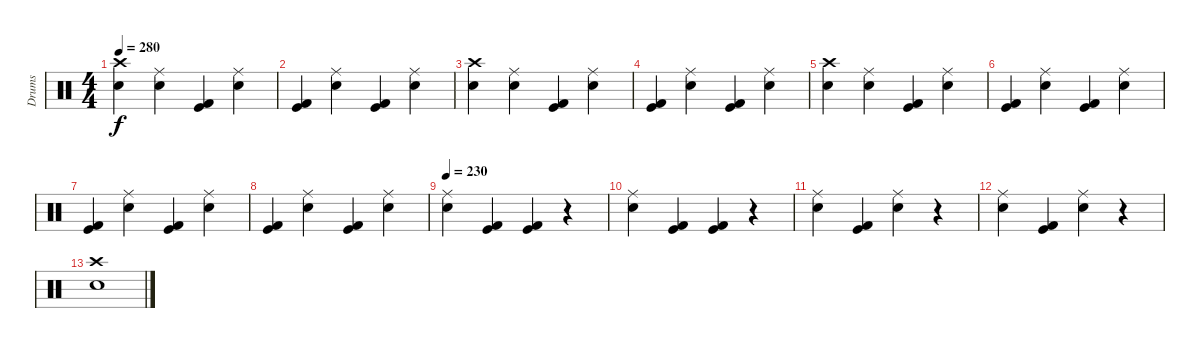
\track ("Drums" "Drums") {instrument percussion}
\staff {score}
\articulation defaults
\ts (4 4)
\tempo 280
\clef neutral
\ks c
("Crash high (hit)" "Electric Snare (hit)").4{dy f} ("Ride (middle)" "Electric Snare (hit)").4 ("Kick (hit)" "Kick (hit) 2").4 ("Ride (middle)" "Electric Snare (hit)").4 |
("Kick (hit)" "Kick (hit) 2").4 ("Ride (middle)" "Electric Snare (hit)").4 ("Kick (hit)" "Kick (hit) 2").4 ("Ride (middle)" "Electric Snare (hit)").4 |
("Crash high (hit)" "Electric Snare (hit)").4 ("Ride (middle)" "Electric Snare (hit)").4 ("Kick (hit)" "Kick (hit) 2").4 ("Ride (middle)" "Electric Snare (hit)").4 |
("Kick (hit)" "Kick (hit) 2").4 ("Ride (middle)" "Electric Snare (hit)").4 ("Kick (hit)" "Kick (hit) 2").4 ("Ride (middle)" "Electric Snare (hit)").4 |
("Crash high (hit)" "Electric Snare (hit)").4 ("Ride (middle)" "Electric Snare (hit)").4 ("Kick (hit)" "Kick (hit) 2").4 ("Ride (middle)" "Electric Snare (hit)").4 |
("Kick (hit)" "Kick (hit) 2").4 ("Ride (middle)" "Electric Snare (hit)").4 ("Kick (hit)" "Kick (hit) 2").4 ("Ride (middle)" "Electric Snare (hit)").4 |
("Kick (hit)" "Kick (hit) 2").4 ("Ride (middle)" "Electric Snare (hit)").4 ("Kick (hit)" "Kick (hit) 2").4 ("Ride (middle)" "Electric Snare (hit)").4 |
("Kick (hit)" "Kick (hit) 2").4 ("Ride (middle)" "Electric Snare (hit)").4 ("Kick (hit)" "Kick (hit) 2").4 ("Ride (middle)" "Electric Snare (hit)").4 |
\tempo 230
("Ride (middle)" "Electric Snare (hit)").4 ("Kick (hit)" "Kick (hit) 2").4 ("Kick (hit)" "Kick (hit) 2").4 r.4 |
("Ride (middle)" "Electric Snare (hit)").4 ("Kick (hit)" "Kick (hit) 2").4 ("Kick (hit)" "Kick (hit) 2").4 r.4 |
("Ride (middle)" "Electric Snare (hit)").4 ("Kick (hit)" "Kick (hit) 2").4 ("Ride (middle)" "Electric Snare (hit)").4 r.4 |
("Ride (middle)" "Electric Snare (hit)").4 ("Kick (hit)" "Kick (hit) 2").4 ("Ride (middle)" "Electric Snare (hit)").4 r.4 |
("Crash high (hit)" "Electric Snare (hit)").1
